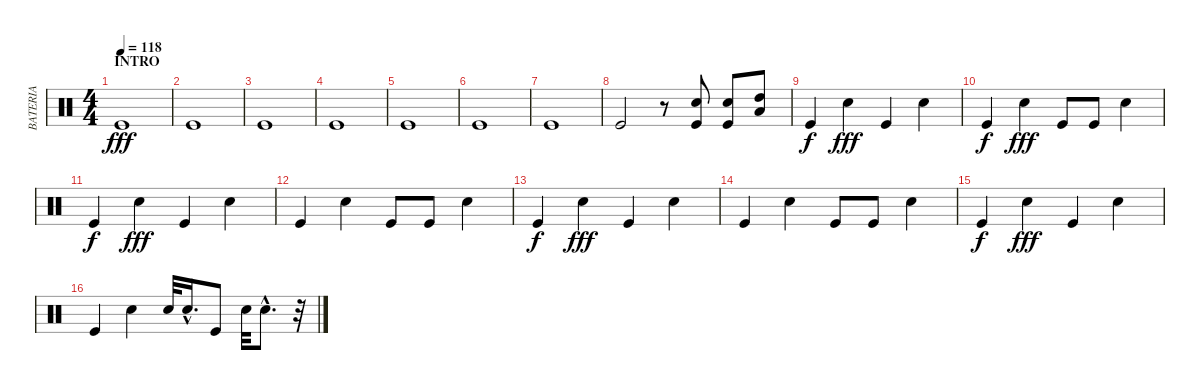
\track ("BATERIA" "BATERIA") {instrument percussion}
\staff {score}
\articulation defaults
\ts (4 4)
\section ("" "INTRO")
\tempo 118
\clef neutral
\ks c "Kick (hit)".1{dy fff}
|
"Kick (hit)".1 |
"Kick (hit)".1 |
"Kick (hit)".1 |
"Kick (hit)".1 |
"Kick (hit)".1 |
"Kick (hit)".1 |
"Kick (hit)".2 r.8 ("Snare (hit) 2" "Kick (hit)").8 ("Snare (hit) 2" "Kick (hit)").8 ("High Tom (hit)" "Low Floor Tom (hit)").8 |
\section ("" "")
"Kick (hit)".4{dy f} "Snare (hit) 2".4{dy fff} "Kick (hit)".4 "Snare (hit) 2".4 |
"Kick (hit)".4{dy f} "Snare (hit) 2".4{dy fff} "Kick (hit)".8 "Kick (hit)".8 "Snare (hit) 2".4 |
"Kick (hit)".4{dy f} "Snare (hit) 2".4{dy fff} "Kick (hit)".4 "Snare (hit) 2".4 |
"Kick (hit)".4 "Snare (hit) 2".4 "Kick (hit)".8 "Kick (hit)".8 "Snare (hit) 2".4 |
"Kick (hit)".4{dy f} "Snare (hit) 2".4{dy fff} "Kick (hit)".4 "Snare (hit) 2".4 |
"Kick (hit)".4 "Snare (hit) 2".4 "Kick (hit)".8 "Kick (hit)".8 "Snare (hit) 2".4 |
"Kick (hit)".4{dy f} "Snare (hit) 2".4{dy fff} "Kick (hit)".4 "Snare (hit) 2".4 |
"Kick (hit)".4 "Snare (hit) 2".4 "Snare (hit) 2".32 "Snare (hit) 2"{hac}.16{d} "Kick (hit)".8 "Snare (hit) 2".32 "Snare (hit) 2"{hac}.8{d} r.32
